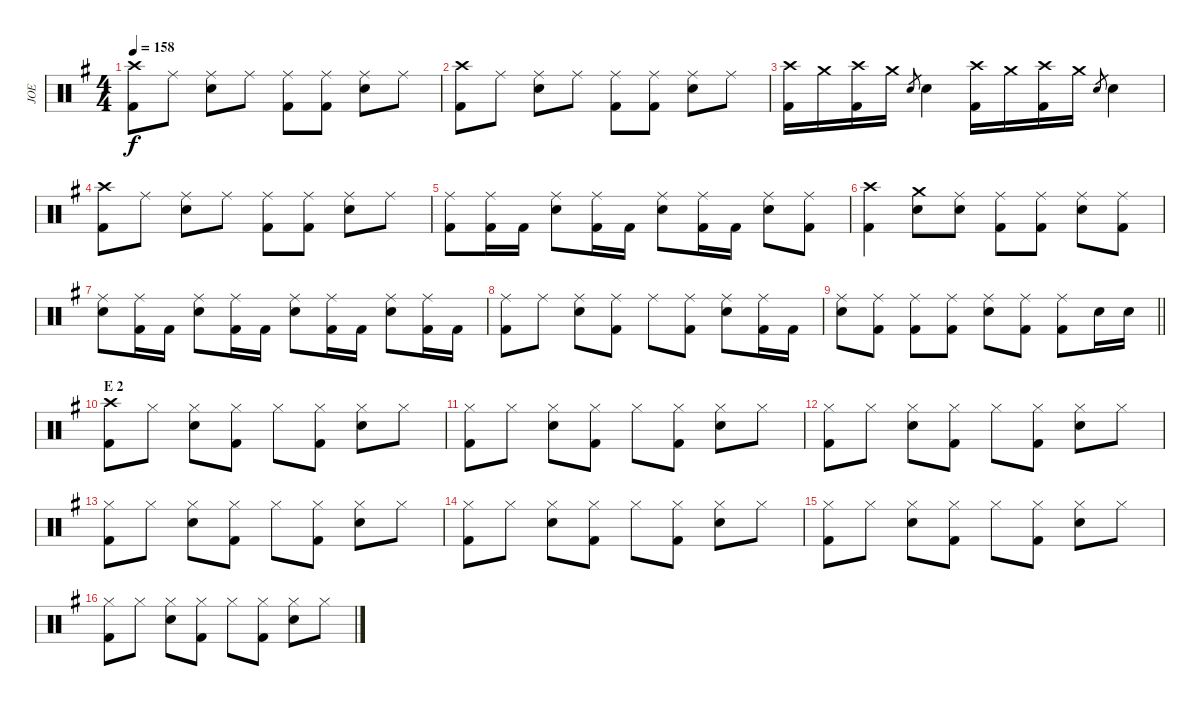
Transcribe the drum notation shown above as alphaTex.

\track ("JOE" "JOE") {instrument percussion}
\staff {score}
\articulation defaults
\ts (4 4)
\tempo 158
\clef neutral
\ks g
("Crash high (hit)" "Kick (hit) 2").8{dy f} "Ride (middle)".8 ("Ride (middle)" "Snare (hit) 2").8 "Ride (middle)".8 ("Ride (middle)" "Kick (hit) 2").8 ("Ride (middle)" "Kick (hit) 2").8 ("Ride (middle)" "Snare (hit) 2").8 "Ride (middle)".8 |
("Crash high (hit)" "Kick (hit) 2").8 "Ride (middle)".8 ("Ride (middle)" "Snare (hit) 2").8 "Ride (middle)".8 ("Ride (middle)" "Kick (hit) 2").8 ("Ride (middle)" "Kick (hit) 2").8 ("Ride (middle)" "Snare (hit) 2").8 "Ride (middle)".8 |
("Crash high (hit)" "Kick (hit) 2").16 "Crash medium (hit)".16 ("Crash high (hit)" "Kick (hit) 2").16 "Crash medium (hit)".16 "Snare (hit) 2".8{gr} "Snare (hit) 2".4 ("Crash high (hit)" "Kick (hit) 2").16 "Crash medium (hit)".16 ("Crash high (hit)" "Kick (hit) 2").16 "Crash medium (hit)".16 "Snare (hit) 2".8{gr} "Snare (hit) 2".4 |
("Crash high (hit)" "Kick (hit) 2").8 "Ride (middle)".8 ("Ride (middle)" "Snare (hit) 2").8 "Ride (middle)".8 ("Ride (middle)" "Kick (hit) 2").8 ("Ride (middle)" "Kick (hit) 2").8 ("Ride (middle)" "Snare (hit) 2").8 "Ride (middle)".8 |
("Ride (middle)" "Kick (hit) 2").8 ("Ride (middle)" "Kick (hit) 2").16 "Kick (hit) 2".16 ("Ride (middle)" "Snare (hit) 2").8 ("Ride (middle)" "Kick (hit) 2").16 "Kick (hit) 2".16 ("Ride (middle)" "Snare (hit) 2").8 ("Ride (middle)" "Kick (hit) 2").16 "Kick (hit) 2".16 ("Ride (middle)" "Snare (hit) 2").8 ("Ride (middle)" "Kick (hit) 2").8 |
("Crash high (hit)" "Kick (hit) 2").4 ("Crash medium (hit)" "Snare (hit) 2").8 ("Ride (middle)" "Snare (hit) 2").8 ("Ride (middle)" "Kick (hit) 2").8 ("Ride (middle)" "Kick (hit) 2").8 ("Ride (middle)" "Snare (hit) 2").8 ("Ride (middle)" "Kick (hit) 2").8 |
("Ride (middle)" "Snare (hit) 2").8 ("Ride (middle)" "Kick (hit) 2").16 "Kick (hit) 2".16 ("Ride (middle)" "Snare (hit) 2").8 ("Ride (middle)" "Kick (hit) 2").16 "Kick (hit) 2".16 ("Ride (middle)" "Snare (hit) 2").8 ("Ride (middle)" "Kick (hit) 2").16 "Kick (hit) 2".16 ("Ride (middle)" "Snare (hit) 2").8 ("Ride (middle)" "Kick (hit) 2").16 "Kick (hit) 2".16 |
("Ride (middle)" "Kick (hit) 2").8 "Ride (middle)".8 ("Ride (middle)" "Snare (hit) 2").8 ("Ride (middle)" "Kick (hit) 2").8 "Ride (middle)".8 ("Ride (middle)" "Kick (hit) 2").8 ("Ride (middle)" "Snare (hit) 2").8 ("Ride (middle)" "Kick (hit) 2").16 "Kick (hit) 2".16 |
\barLineRight lightlight
("Ride (middle)" "Snare (hit) 2").8 ("Ride (middle)" "Kick (hit) 2").8 ("Ride (middle)" "Kick (hit) 2").8 ("Ride (middle)" "Kick (hit) 2").8 ("Ride (middle)" "Snare (hit) 2").8 ("Ride (middle)" "Kick (hit) 2").8 ("Ride (middle)" "Kick (hit) 2").8 "Snare (hit) 2".16 "Snare (hit) 2".16 |
\section ("" "E 2")
("Crash high (hit)" "Kick (hit) 2").8 "Hi-Hat (closed)".8 ("Hi-Hat (closed)" "Snare (hit) 2").8 ("Hi-Hat (closed)" "Kick (hit) 2").8 "Hi-Hat (closed)".8 ("Hi-Hat (closed)" "Kick (hit) 2").8 ("Hi-Hat (closed)" "Snare (hit) 2").8 "Hi-Hat (closed)".8 |
("Hi-Hat (closed)" "Kick (hit) 2").8 "Hi-Hat (closed)".8 ("Hi-Hat (closed)" "Snare (hit) 2").8 ("Hi-Hat (closed)" "Kick (hit) 2").8 "Hi-Hat (closed)".8 ("Hi-Hat (closed)" "Kick (hit) 2").8 ("Hi-Hat (closed)" "Snare (hit) 2").8 "Hi-Hat (closed)".8 |
("Hi-Hat (closed)" "Kick (hit) 2").8 "Hi-Hat (closed)".8 ("Hi-Hat (closed)" "Snare (hit) 2").8 ("Hi-Hat (closed)" "Kick (hit) 2").8 "Hi-Hat (closed)".8 ("Hi-Hat (closed)" "Kick (hit) 2").8 ("Hi-Hat (closed)" "Snare (hit) 2").8 "Hi-Hat (closed)".8 |
("Hi-Hat (closed)" "Kick (hit) 2").8 "Hi-Hat (closed)".8 ("Hi-Hat (closed)" "Snare (hit) 2").8 ("Hi-Hat (closed)" "Kick (hit) 2").8 "Hi-Hat (closed)".8 ("Hi-Hat (closed)" "Kick (hit) 2").8 ("Hi-Hat (closed)" "Snare (hit) 2").8 "Hi-Hat (closed)".8 |
("Hi-Hat (closed)" "Kick (hit) 2").8 "Hi-Hat (closed)".8 ("Hi-Hat (closed)" "Snare (hit) 2").8 ("Hi-Hat (closed)" "Kick (hit) 2").8 "Hi-Hat (closed)".8 ("Hi-Hat (closed)" "Kick (hit) 2").8 ("Hi-Hat (closed)" "Snare (hit) 2").8 "Hi-Hat (closed)".8 |
("Hi-Hat (closed)" "Kick (hit) 2").8 "Hi-Hat (closed)".8 ("Hi-Hat (closed)" "Snare (hit) 2").8 ("Hi-Hat (closed)" "Kick (hit) 2").8 "Hi-Hat (closed)".8 ("Hi-Hat (closed)" "Kick (hit) 2").8 ("Hi-Hat (closed)" "Snare (hit) 2").8 "Hi-Hat (closed)".8 |
("Hi-Hat (closed)" "Kick (hit) 2").8 "Hi-Hat (closed)".8 ("Hi-Hat (closed)" "Snare (hit) 2").8 ("Hi-Hat (closed)" "Kick (hit) 2").8 "Hi-Hat (closed)".8 ("Hi-Hat (closed)" "Kick (hit) 2").8 ("Hi-Hat (closed)" "Snare (hit) 2").8 "Hi-Hat (closed)".8
